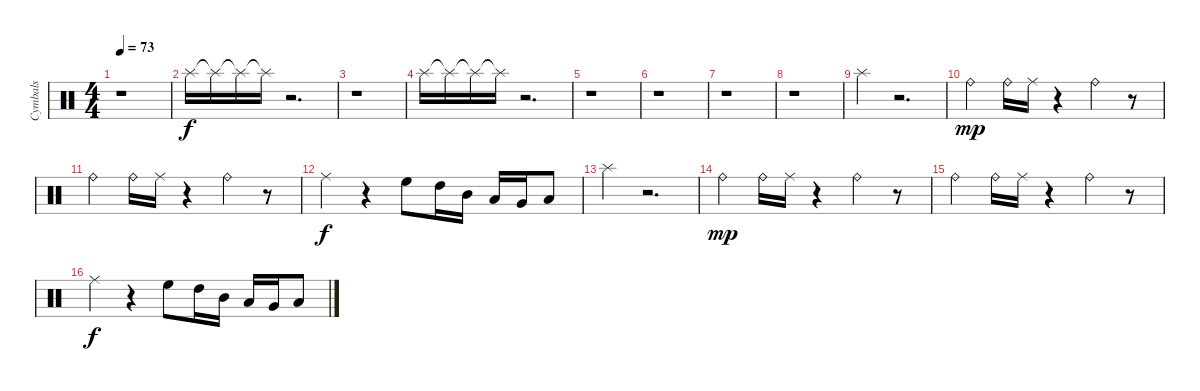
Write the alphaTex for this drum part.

\track ("Cymbals" "Cymbals") {instrument percussion}
\staff {score}
\articulation defaults
\ts (4 4)
\tempo 73
\clef neutral
\ks c
r.1{dy f} |
"Splash (hit)".16 "Splash (hit)"{t}.16 "Splash (hit)"{t}.16 "Splash (hit)"{t}.16 r.2{d} |
r.1 |
"Splash (hit)".16 "Splash (hit)"{t}.16 "Splash (hit)"{t}.16 "Splash (hit)"{t}.16 r.2{d} |
r.1 |
r.1 |
r.1 |
r.1 |
"Splash (hit)".4 r.2{d} |
"Ride (bell)".4{dy mp} "Ride (bell)".16 "Ride (middle)".16 r.4 "Ride (bell)".4 r.8 |
"Ride (bell)".4 "Ride (bell)".16 "Ride (middle)".16 r.4 "Ride (bell)".4 r.8 |
"Ride (middle)".4{dy f} r.4 "High Floor Tom (hit)".8 "High Tom (hit)".16 "Mid Tom (hit)".16 "Low Tom (hit)".16 "Very Low Tom (hit)".16 "Low Floor Tom (hit)".8 |
"Splash (hit)".4 r.2{d} |
"Ride (bell)".4{dy mp} "Ride (bell)".16 "Ride (middle)".16 r.4 "Ride (bell)".4 r.8 |
"Ride (bell)".4 "Ride (bell)".16 "Ride (middle)".16 r.4 "Ride (bell)".4 r.8 |
"Ride (middle)".4{dy f} r.4 "High Floor Tom (hit)".8 "High Tom (hit)".16 "Mid Tom (hit)".16 "Low Tom (hit)".16 "Very Low Tom (hit)".16 "Low Floor Tom (hit)".8
